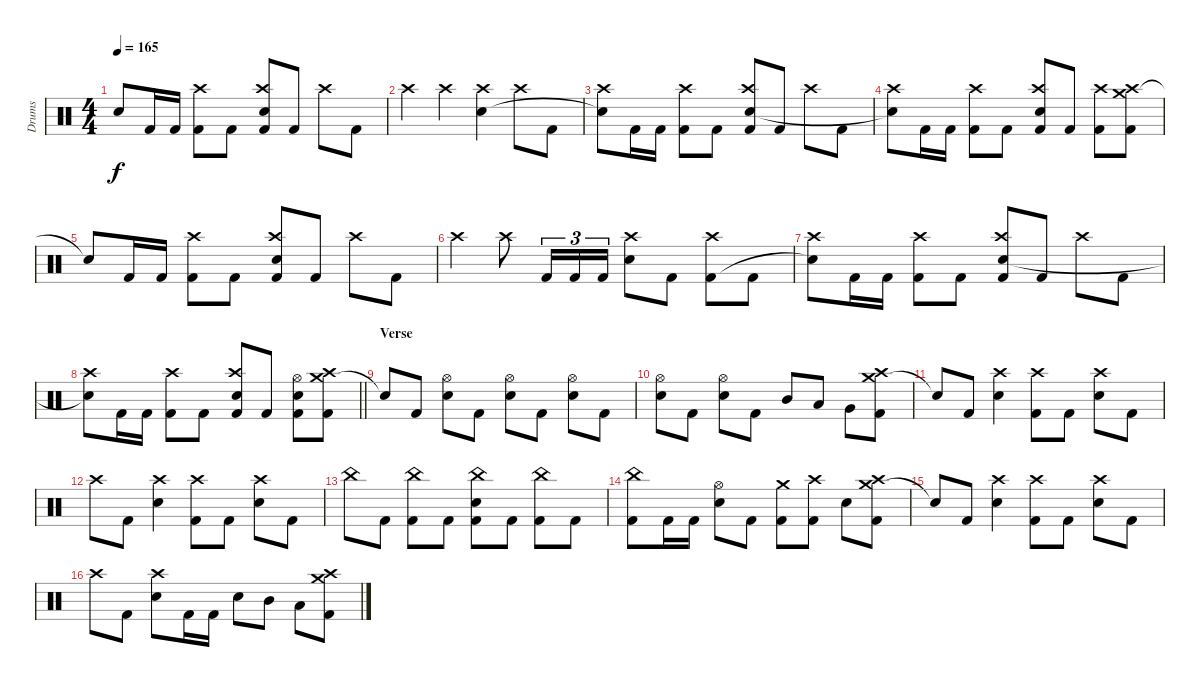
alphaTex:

\track ("Drums" "Drums") {instrument percussion}
\staff {score}
\articulation defaults
\ts (4 4)
\tempo 165
\clef neutral
\ks c "Snare (hit)"{t}.8{dy f} "Kick (hit) 2".16 "Kick (hit) 2".16
("Crash high (hit)" "Kick (hit) 2").8 "Kick (hit) 2".8 ("Crash high (hit)" "Electric Snare (hit)" "Kick (hit) 2").8 "Kick (hit) 2".8 "Crash high (hit)".8 "Kick (hit) 2".8 |
"Crash high (hit)".4 "Crash high (hit)".4 ("Crash high (hit)" "Electric Snare (hit)").4 "Crash high (hit)".8 "Kick (hit) 2".8 |
("Crash high (hit)" "Snare (hit)"{t}).8 "Kick (hit) 2".16 "Kick (hit) 2".16 ("Crash high (hit)" "Kick (hit) 2").8 "Kick (hit) 2".8 ("Crash high (hit)" "Electric Snare (hit)" "Kick (hit) 2").8 "Kick (hit) 2".8 "Crash high (hit)".8 "Kick (hit) 2".8 |
("Crash high (hit)" "Snare (hit)"{t}).8 "Kick (hit) 2".16 "Kick (hit) 2".16 ("Crash high (hit)" "Kick (hit) 2").8 "Kick (hit) 2".8 ("Crash high (hit)" "Electric Snare (hit)" "Kick (hit) 2").8 "Kick (hit) 2".8 ("Crash high (hit)" "Kick (hit) 2").8 ("Crash medium (hit)" "Crash high (hit)" "Kick (hit) 2").8 |
"Snare (hit)"{t}.8 "Kick (hit) 2".16 "Kick (hit) 2".16 ("Crash high (hit)" "Kick (hit) 2").8 "Kick (hit) 2".8 ("Crash high (hit)" "Electric Snare (hit)" "Kick (hit) 2").8 "Kick (hit) 2".8 "Crash high (hit)".8 "Kick (hit) 2".8 |
"Crash high (hit)".4 "Crash high (hit)".8 "Kick (hit) 2".16{tu (3 2)} "Kick (hit) 2".16{tu (3 2)} "Kick (hit) 2".16{tu (3 2)} ("Crash high (hit)" "Electric Snare (hit)").8 "Kick (hit) 2".8 ("Crash high (hit)" "Kick (hit) 2").8 "Kick (hit) 2".8 |
("Crash high (hit)" "Snare (hit)"{t}).8 "Kick (hit) 2".16 "Kick (hit) 2".16 ("Crash high (hit)" "Kick (hit) 2").8 "Kick (hit) 2".8 ("Crash high (hit)" "Electric Snare (hit)" "Kick (hit) 2").8 "Kick (hit) 2".8 "Crash high (hit)".8 "Kick (hit) 2".8 |
\barLineRight lightlight
("Crash high (hit)" "Snare (hit)"{t}).8 "Kick (hit) 2".16 "Kick (hit) 2".16 ("Crash high (hit)" "Kick (hit) 2").8 "Kick (hit) 2".8 ("Crash high (hit)" "Electric Snare (hit)" "Kick (hit) 2").8 "Kick (hit) 2".8 ("Hi-Hat (open)" "Electric Snare (hit)" "Kick (hit) 2").8 ("Crash medium (hit)" "Crash high (hit)" "Kick (hit) 2").8 |
\section ("" "Verse")
"Snare (hit)"{t}.8 "Kick (hit) 2".8 ("Hi-Hat (open)" "Electric Snare (hit)").8 "Kick (hit) 2".8 ("Hi-Hat (open)" "Electric Snare (hit)").8 "Kick (hit) 2".8 ("Hi-Hat (open)" "Electric Snare (hit)").8 "Kick (hit) 2".8 |
("Hi-Hat (open)" "Electric Snare (hit)").8 "Kick (hit) 2".8 ("Hi-Hat (open)" "Electric Snare (hit)").8 "Kick (hit) 2".8 "Mid Tom (hit)".8 "Low Tom (hit)".8 "Very Low Tom (hit)".8 ("Crash medium (hit)" "Crash high (hit)" "Kick (hit) 2").8 |
"Snare (hit)"{t}.8 "Kick (hit) 2".8 ("Crash high (hit)" "Electric Snare (hit)").4 ("Crash high (hit)" "Kick (hit) 2").8 "Kick (hit) 2".8 ("Crash high (hit)" "Electric Snare (hit)").8 "Kick (hit) 2".8 |
"Crash high (hit)".8 "Kick (hit) 2".8 ("Crash high (hit)" "Electric Snare (hit)").4 ("Crash high (hit)" "Kick (hit) 2").8 "Kick (hit) 2".8 ("Crash high (hit)" "Electric Snare (hit)").8 "Kick (hit) 2".8 |
"China (hit)".8 "Kick (hit) 2".8 ("China (hit)" "Kick (hit) 2").8 "Kick (hit) 2".8 ("China (hit)" "Electric Snare (hit)" "Kick (hit) 2").8 "Kick (hit) 2".8 ("China (hit)" "Kick (hit) 2").8 "Kick (hit) 2".8 |
("China (hit)" "Kick (hit) 2").8 "Kick (hit) 2".16 "Kick (hit) 2".16 ("Hi-Hat (open)" "Electric Snare (hit)").8 "Kick (hit) 2".8 ("Crash medium (hit)" "Kick (hit) 2").8 ("Crash high (hit)" "Kick (hit) 2").8 "Electric Snare (hit)".8 ("Crash medium (hit)" "Crash high (hit)" "Kick (hit) 2").8 |
"Snare (hit)"{t}.8 "Kick (hit) 2".8 ("Crash high (hit)" "Electric Snare (hit)").4 ("Crash high (hit)" "Kick (hit) 2").8 "Kick (hit) 2".8 ("Crash high (hit)" "Electric Snare (hit)").8 "Kick (hit) 2".8 |
"Crash high (hit)".8 "Kick (hit) 2".8 ("Crash high (hit)" "Electric Snare (hit)").8 "Kick (hit) 2".16 "Kick (hit) 2".16 "Electric Snare (hit)".8 "Mid Tom (hit)".8 "Low Tom (hit)".8 ("Crash medium (hit)" "Crash high (hit)" "Kick (hit) 2").8
